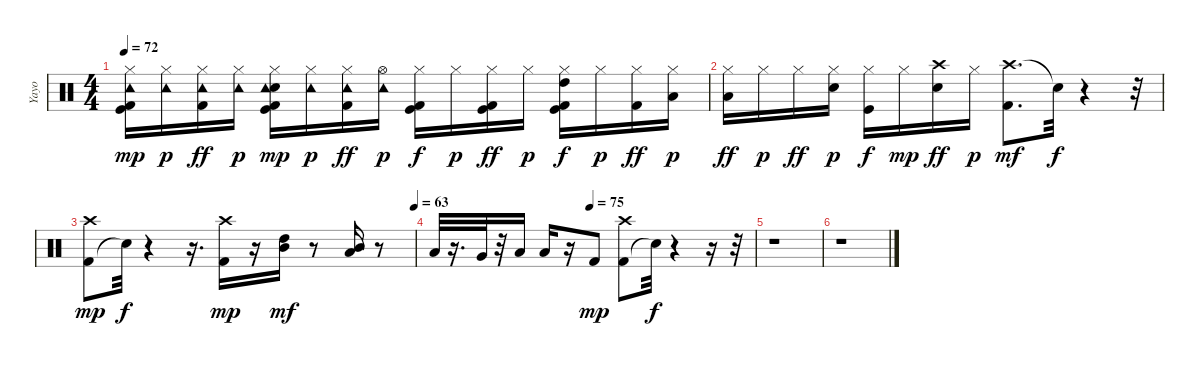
\track ("Yayo" "Yayo") {instrument percussion}
\staff {score}
\articulation defaults
\ts (4 4)
\tempo 72
\clef neutral
\ks c
("Kick (hit)" "Hi-Hat (closed)" "Tambourine (hit)" "Kick (hit) 2").16{dy mp} ("Hi-Hat (closed)" "Tambourine (hit)").16{dy p} ("Hi-Hat (closed)" "Tambourine (hit)" "Kick (hit) 2").16{dy ff} ("Hi-Hat (closed)" "Tambourine (hit)").16{dy p} ("Kick (hit)" "Snare (hit) 2" "Hi-Hat (closed)" "Tambourine (hit)" "Kick (hit) 2").16{dy mp} ("Hi-Hat (closed)" "Tambourine (hit)").16{dy p} ("Hi-Hat (closed)" "Tambourine (hit)" "Kick (hit) 2").16{dy ff} ("Hi-Hat (open)" "Tambourine (hit)").16{dy p} ("Kick (hit)" "Hi-Hat (closed)" "Kick (hit) 2").16{dy f} "Hi-Hat (closed)".16{dy p} ("Kick (hit)" "Hi-Hat (closed)" "Kick (hit) 2").16{dy ff} "Hi-Hat (closed)".16{dy p} ("Kick (hit)" "Hi-Hat (closed)" "High Tom (hit)" "Kick (hit) 2").16{dy f} "Hi-Hat (closed)".16{dy p} ("Hi-Hat (closed)" "Kick (hit) 2").16{dy ff} ("Hi-Hat (closed)" "Low Tom (hit)").16{dy p} |
("Hi-Hat (closed)" "Low Floor Tom (hit)").16{dy ff} "Hi-Hat (closed)".16{dy p} "Hi-Hat (closed)".16{dy ff} ("Snare (hit) 2" "Hi-Hat (closed)").16{dy p} ("Kick (hit)" "Hi-Hat (closed)").16{dy f} "Hi-Hat (closed)".16{dy mp} ("Snare (hit) 2" "Crash high (hit)").16{dy ff} "Hi-Hat (closed)".16{dy p} ("Crash high (hit)" "Kick (hit) 2").8{d dy mf} "Snare (hit)"{t}.32{dy f} r.4 r.32 |
\tempo (63 1)
("Kick (hit) 2" "Crash high (hit)").8{dy mp} "Snare (hit)"{t}.32{dy f} r.4 r.16{d} ("Kick (hit) 2" "Crash high (hit)").16{dy mp} r.16 ("High Tom (hit)" "Mid Tom (hit)").16{dy mf} r.8 ("Low Tom (hit)" "Mid Tom (hit)").16 r.8 |
\tempo (75 0.4875)
"Low Tom (hit)".32 r.16{d} "Very Low Tom (hit)".32 r.32 "Low Floor Tom (hit)".16 "Low Floor Tom (hit)".16 r.16 "Kick (hit) 2".8{dy mp} ("Kick (hit) 2" "Crash high (hit)").8 "Snare (hit)"{t}.32{dy f} r.4 r.16 r.32 |
r.1 |
r.1
